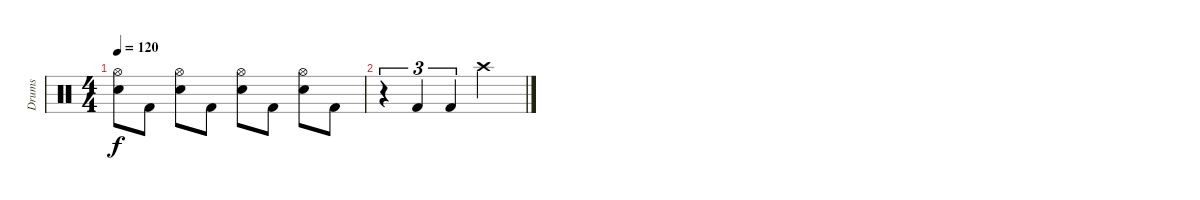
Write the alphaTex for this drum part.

\track ("Drums" "Drums") {instrument percussion}
\staff {score}
\articulation defaults
\ts (4 4)
\tempo 120
\clef neutral
\ks c
("Hi-Hat (open)" "Electric Snare (hit)").8{dy f} "Kick (hit) 2".8 ("Hi-Hat (open)" "Electric Snare (hit)").8 "Kick (hit) 2".8 ("Hi-Hat (open)" "Electric Snare (hit)").8 "Kick (hit) 2".8 ("Hi-Hat (open)" "Electric Snare (hit)").8 "Kick (hit) 2".8 |
r.4{tu (3 2)} "Kick (hit) 2".4{tu (3 2)} "Kick (hit) 2".4{tu (3 2)} "Crash high (hit)".2
